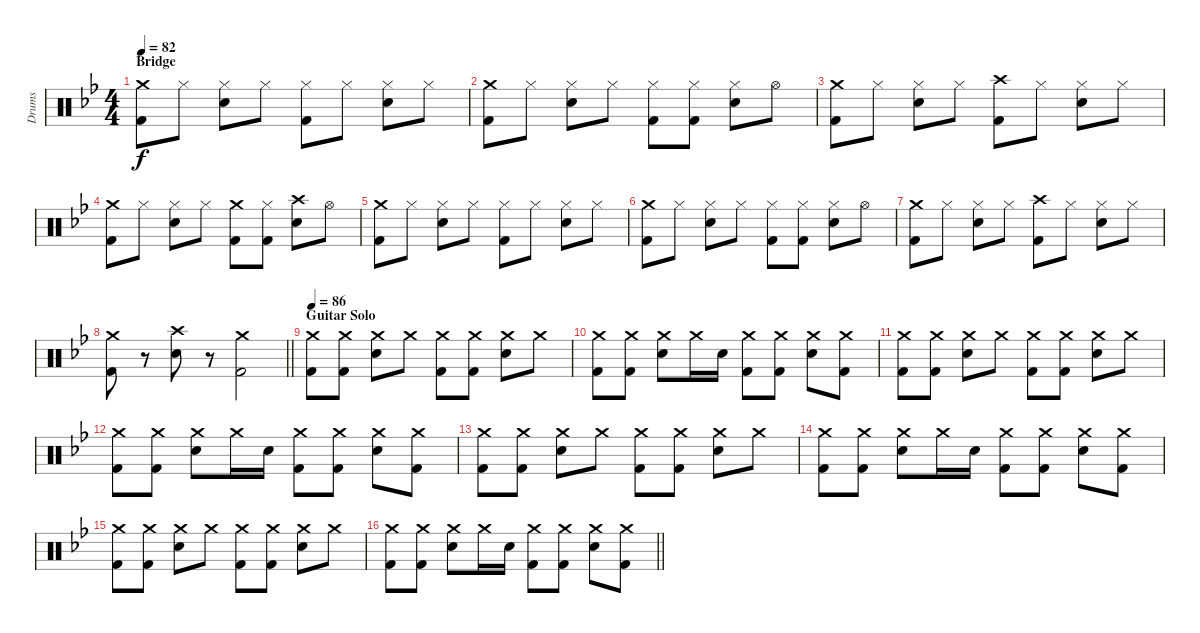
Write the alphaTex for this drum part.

\track ("Drums" "Drums") {instrument percussion}
\staff {score}
\articulation defaults
\ts (4 4)
\section ("" "Bridge")
\tempo 82
\clef neutral
\ks gminor
("Crash medium (hit)" "Kick (hit) 2").8{dy f} "Hi-Hat (closed)".8 ("Hi-Hat (closed)" "Snare (hit) 2").8 "Hi-Hat (closed)".8 ("Hi-Hat (closed)" "Kick (hit) 2").8 "Hi-Hat (closed)".8 ("Hi-Hat (closed)" "Snare (hit) 2").8 "Hi-Hat (closed)".8 |
("Crash medium (hit)" "Kick (hit) 2").8 "Hi-Hat (closed)".8 ("Hi-Hat (closed)" "Snare (hit) 2").8 "Hi-Hat (closed)".8 ("Hi-Hat (closed)" "Kick (hit) 2").8 ("Hi-Hat (closed)" "Kick (hit) 2").8 ("Hi-Hat (closed)" "Snare (hit) 2").8 "Hi-Hat (open)".8 |
("Crash medium (hit)" "Kick (hit) 2").8 "Hi-Hat (closed)".8 ("Hi-Hat (closed)" "Snare (hit) 2").8 "Hi-Hat (closed)".8 ("Crash high (hit)" "Kick (hit) 2").8 "Hi-Hat (closed)".8 ("Hi-Hat (closed)" "Snare (hit) 2").8 "Hi-Hat (closed)".8 |
("Crash medium (hit)" "Kick (hit) 2").8 "Hi-Hat (closed)".8 ("Hi-Hat (closed)" "Snare (hit) 2").8 "Hi-Hat (closed)".8 ("Crash medium (hit)" "Kick (hit) 2").8 ("Hi-Hat (closed)" "Kick (hit) 2").8 ("Crash high (hit)" "Snare (hit) 2").8 "Hi-Hat (open)".8 |
("Crash medium (hit)" "Kick (hit) 2").8 "Hi-Hat (closed)".8 ("Hi-Hat (closed)" "Snare (hit) 2").8 "Hi-Hat (closed)".8 ("Hi-Hat (closed)" "Kick (hit) 2").8 "Hi-Hat (closed)".8 ("Hi-Hat (closed)" "Snare (hit) 2").8 "Hi-Hat (closed)".8 |
("Crash medium (hit)" "Kick (hit) 2").8 "Hi-Hat (closed)".8 ("Hi-Hat (closed)" "Snare (hit) 2").8 "Hi-Hat (closed)".8 ("Hi-Hat (closed)" "Kick (hit) 2").8 ("Hi-Hat (closed)" "Kick (hit) 2").8 ("Hi-Hat (closed)" "Snare (hit) 2").8 "Hi-Hat (open)".8 |
("Crash medium (hit)" "Kick (hit) 2").8 "Hi-Hat (closed)".8 ("Hi-Hat (closed)" "Snare (hit) 2").8 "Hi-Hat (closed)".8 ("Crash high (hit)" "Kick (hit) 2").8 "Hi-Hat (closed)".8 ("Hi-Hat (closed)" "Snare (hit) 2").8 "Hi-Hat (closed)".8 |
\barLineRight lightlight
("Crash medium (hit)" "Kick (hit) 2").8 r.8 ("Crash high (hit)" "Snare (hit) 2").8 r.8 ("Crash medium (hit)" "Kick (hit) 2").2 |
\section ("" "Guitar Solo")
\tempo 86
("Crash medium (hit)" "Kick (hit) 2").8 ("Crash medium (hit)" "Kick (hit) 2").8 ("Crash medium (hit)" "Snare (hit) 2").8 "Crash medium (hit)".8 ("Crash medium (hit)" "Kick (hit) 2").8 ("Crash medium (hit)" "Kick (hit) 2").8 ("Crash medium (hit)" "Snare (hit) 2").8 "Crash medium (hit)".8 |
("Crash medium (hit)" "Kick (hit) 2").8 ("Crash medium (hit)" "Kick (hit) 2").8 ("Crash medium (hit)" "Snare (hit) 2").8 "Crash medium (hit)".16 "Snare (hit) 2".16 ("Crash medium (hit)" "Kick (hit) 2").8 ("Crash medium (hit)" "Kick (hit) 2").8 ("Crash medium (hit)" "Snare (hit) 2").8 ("Crash medium (hit)" "Kick (hit) 2").8 |
("Crash medium (hit)" "Kick (hit) 2").8 ("Crash medium (hit)" "Kick (hit) 2").8 ("Crash medium (hit)" "Snare (hit) 2").8 "Crash medium (hit)".8 ("Crash medium (hit)" "Kick (hit) 2").8 ("Crash medium (hit)" "Kick (hit) 2").8 ("Crash medium (hit)" "Snare (hit) 2").8 "Crash medium (hit)".8 |
("Crash medium (hit)" "Kick (hit) 2").8 ("Crash medium (hit)" "Kick (hit) 2").8 ("Crash medium (hit)" "Snare (hit) 2").8 "Crash medium (hit)".16 "Snare (hit) 2".16 ("Crash medium (hit)" "Kick (hit) 2").8 ("Crash medium (hit)" "Kick (hit) 2").8 ("Crash medium (hit)" "Snare (hit) 2").8 ("Crash medium (hit)" "Kick (hit) 2").8 |
("Crash medium (hit)" "Kick (hit) 2").8 ("Crash medium (hit)" "Kick (hit) 2").8 ("Crash medium (hit)" "Snare (hit) 2").8 "Crash medium (hit)".8 ("Crash medium (hit)" "Kick (hit) 2").8 ("Crash medium (hit)" "Kick (hit) 2").8 ("Crash medium (hit)" "Snare (hit) 2").8 "Crash medium (hit)".8 |
("Crash medium (hit)" "Kick (hit) 2").8 ("Crash medium (hit)" "Kick (hit) 2").8 ("Crash medium (hit)" "Snare (hit) 2").8 "Crash medium (hit)".16 "Snare (hit) 2".16 ("Crash medium (hit)" "Kick (hit) 2").8 ("Crash medium (hit)" "Kick (hit) 2").8 ("Crash medium (hit)" "Snare (hit) 2").8 ("Crash medium (hit)" "Kick (hit) 2").8 |
("Crash medium (hit)" "Kick (hit) 2").8 ("Crash medium (hit)" "Kick (hit) 2").8 ("Crash medium (hit)" "Snare (hit) 2").8 "Crash medium (hit)".8 ("Crash medium (hit)" "Kick (hit) 2").8 ("Crash medium (hit)" "Kick (hit) 2").8 ("Crash medium (hit)" "Snare (hit) 2").8 "Crash medium (hit)".8 |
\barLineRight lightlight
("Crash medium (hit)" "Kick (hit) 2").8 ("Crash medium (hit)" "Kick (hit) 2").8 ("Crash medium (hit)" "Snare (hit) 2").8 "Crash medium (hit)".16 "Snare (hit) 2".16 ("Crash medium (hit)" "Kick (hit) 2").8 ("Crash medium (hit)" "Kick (hit) 2").8 ("Crash medium (hit)" "Snare (hit) 2").8 ("Crash medium (hit)" "Kick (hit) 2").8
